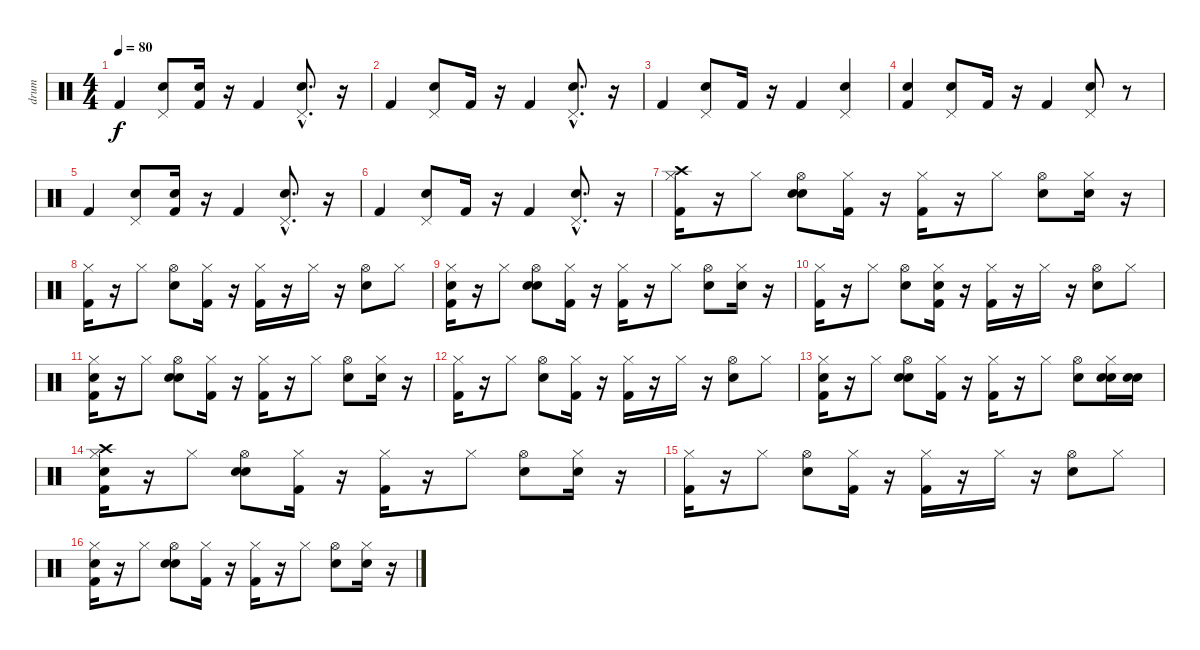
\track ("drum" "drum") {instrument percussion}
\staff {score}
\articulation defaults
\ts (4 4)
\tempo 80
\clef neutral
\ks c "Kick (hit) 2".4{dy f}
("Pedal Hi-Hat (hit)" "Snare (hit) 2").8 ("Snare (hit)" "Kick (hit) 2").16 r.16 "Kick (hit) 2".4 ("Pedal Hi-Hat (hit)"{hac} "Snare (hit) 2"{hac}).8{d} r.16 |
"Kick (hit) 2".4 ("Pedal Hi-Hat (hit)" "Snare (hit) 2").8 "Kick (hit) 2".16 r.16 "Kick (hit) 2".4 ("Pedal Hi-Hat (hit)"{hac} "Snare (hit) 2"{hac}).8{d} r.16 |
"Kick (hit) 2".4 ("Snare (hit) 2" "Pedal Hi-Hat (hit)").8 "Kick (hit) 2".16 r.16 "Kick (hit) 2".4 ("Pedal Hi-Hat (hit)" "Snare (hit) 2").4 |
("Snare (hit)" "Kick (hit) 2").4 ("Pedal Hi-Hat (hit)" "Snare (hit) 2").8 "Kick (hit) 2".16 r.16 "Kick (hit) 2".4 ("Snare (hit) 2" "Pedal Hi-Hat (hit)").8 r.8 |
"Kick (hit) 2".4 ("Snare (hit) 2" "Pedal Hi-Hat (hit)").8 ("Snare (hit)" "Kick (hit) 2").16 r.16 "Kick (hit) 2".4 ("Snare (hit) 2"{hac} "Pedal Hi-Hat (hit)"{hac}).8{d} r.16 |
"Kick (hit) 2".4 ("Snare (hit) 2" "Pedal Hi-Hat (hit)").8 "Kick (hit) 2".16 r.16 "Kick (hit) 2".4 ("Pedal Hi-Hat (hit)"{hac} "Snare (hit) 2"{hac}).8{d} r.16 |
("Hi-Hat (closed)" "Crash high (hit)" "Kick (hit) 2").16 r.16 "Hi-Hat (closed)".8 ("Snare (hit)" "Snare (hit) 2" "Hi-Hat (open)").8 ("Hi-Hat (closed)" "Kick (hit) 2").16 r.16 ("Kick (hit) 2" "Hi-Hat (closed)").16 r.16 "Hi-Hat (closed)".8 ("Hi-Hat (open)" "Snare (hit) 2").8 ("Snare (hit)" "Hi-Hat (closed)").16 r.16 |
("Kick (hit) 2" "Hi-Hat (closed)").16 r.16 "Hi-Hat (closed)".8 ("Snare (hit) 2" "Hi-Hat (open)").8 ("Kick (hit) 2" "Hi-Hat (closed)").16 r.16 ("Kick (hit) 2" "Hi-Hat (closed)").16 r.16 "Hi-Hat (closed)".16 r.16 ("Hi-Hat (open)" "Snare (hit) 2").8 "Hi-Hat (closed)".8 |
("Snare (hit)" "Hi-Hat (closed)" "Kick (hit) 2").16 r.16 "Hi-Hat (closed)".8 ("Snare (hit)" "Snare (hit) 2" "Hi-Hat (open)").8 ("Kick (hit) 2" "Hi-Hat (closed)").16 r.16 ("Kick (hit) 2" "Hi-Hat (closed)").16 r.16 "Hi-Hat (closed)".8 ("Snare (hit) 2" "Hi-Hat (open)").8 ("Snare (hit)" "Hi-Hat (closed)").16 r.16 |
("Kick (hit) 2" "Hi-Hat (closed)").16 r.16 "Hi-Hat (closed)".8 ("Snare (hit) 2" "Hi-Hat (open)").8 ("Snare (hit)" "Kick (hit) 2" "Hi-Hat (closed)").16 r.16 ("Hi-Hat (closed)" "Kick (hit) 2").16 r.16 "Hi-Hat (closed)".16 r.16 ("Hi-Hat (open)" "Snare (hit) 2").8 "Hi-Hat (closed)".8 |
("Snare (hit)" "Kick (hit) 2" "Hi-Hat (closed)").16 r.16 "Hi-Hat (closed)".8 ("Snare (hit)" "Snare (hit) 2" "Hi-Hat (open)").8 ("Hi-Hat (closed)" "Kick (hit) 2").16 r.16 ("Hi-Hat (closed)" "Kick (hit) 2").16 r.16 "Hi-Hat (closed)".8 ("Snare (hit) 2" "Hi-Hat (open)").8 ("Snare (hit)" "Hi-Hat (closed)").16 r.16 |
("Kick (hit) 2" "Hi-Hat (closed)").16 r.16 "Hi-Hat (closed)".8 ("Hi-Hat (open)" "Snare (hit) 2").8 ("Hi-Hat (closed)" "Kick (hit) 2").16 r.16 ("Hi-Hat (closed)" "Kick (hit) 2").16 r.16 "Hi-Hat (closed)".16 r.16 ("Hi-Hat (open)" "Snare (hit) 2").8 "Hi-Hat (closed)".8 |
("Snare (hit)" "Kick (hit) 2" "Hi-Hat (closed)").16 r.16 "Hi-Hat (closed)".8 ("Snare (hit)" "Hi-Hat (open)" "Snare (hit) 2").8 ("Hi-Hat (closed)" "Kick (hit) 2").16 r.16 ("Kick (hit) 2" "Hi-Hat (closed)").16 r.16 "Hi-Hat (closed)".8 ("Hi-Hat (open)" "Snare (hit) 2").8 ("Snare (hit)" "Hi-Hat (closed)" "Snare (hit) 2").16 ("Snare (hit)" "Snare (hit) 2").16 |
("Snare (hit)" "Crash high (hit)" "Kick (hit) 2" "Hi-Hat (closed)").16 r.16 "Hi-Hat (closed)".8 ("Snare (hit)" "Snare (hit) 2" "Hi-Hat (open)").8 ("Hi-Hat (closed)" "Kick (hit) 2").16 r.16 ("Kick (hit) 2" "Hi-Hat (closed)").16 r.16 "Hi-Hat (closed)".8 ("Snare (hit) 2" "Hi-Hat (open)").8 ("Snare (hit)" "Hi-Hat (closed)").16 r.16 |
("Hi-Hat (closed)" "Kick (hit) 2").16 r.16 "Hi-Hat (closed)".8 ("Snare (hit) 2" "Hi-Hat (open)").8 ("Kick (hit) 2" "Hi-Hat (closed)").16 r.16 ("Hi-Hat (closed)" "Kick (hit) 2").16 r.16 "Hi-Hat (closed)".16 r.16 ("Hi-Hat (open)" "Snare (hit) 2").8 "Hi-Hat (closed)".8 |
("Snare (hit)" "Hi-Hat (closed)" "Kick (hit) 2").16 r.16 "Hi-Hat (closed)".8 ("Snare (hit)" "Hi-Hat (open)" "Snare (hit) 2").8 ("Hi-Hat (closed)" "Kick (hit) 2").16 r.16 ("Hi-Hat (closed)" "Kick (hit) 2").16 r.16 "Hi-Hat (closed)".8 ("Hi-Hat (open)" "Snare (hit) 2").8 ("Snare (hit)" "Hi-Hat (closed)").16 r.16
